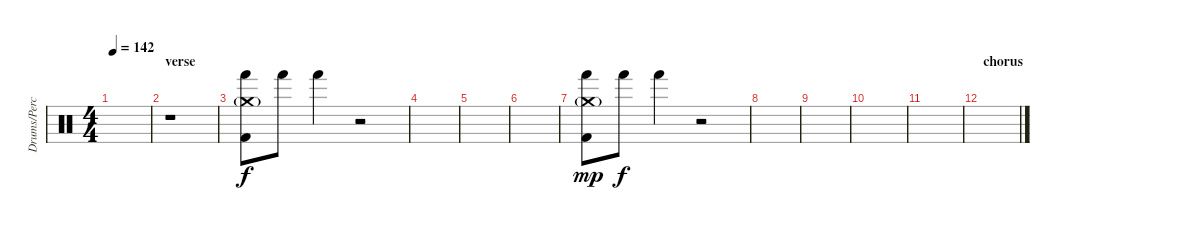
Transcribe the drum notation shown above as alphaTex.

\track ("Drums/Percussion (Bengerg)" "Drums/Perc") {instrument percussion}
\staff {score}
\articulation defaults
\ts (4 4)
\tempo 142
\clef neutral
\ks c
|
\section ("" "verse")
r.1 |
("Crash medium (hit)"{g} "Hand (hit)" "Kick (hit) 2").8 "Hand (hit)".8{dy f} "Hand (hit)".4 r.2 |
|
|
|
("Crash medium (hit)"{g} "Hand (hit)" "Kick (hit) 2").8{dy mp} "Hand (hit)".8{dy f} "Hand (hit)".4 r.2 |
|
|
|
|
\section ("" "chorus")
